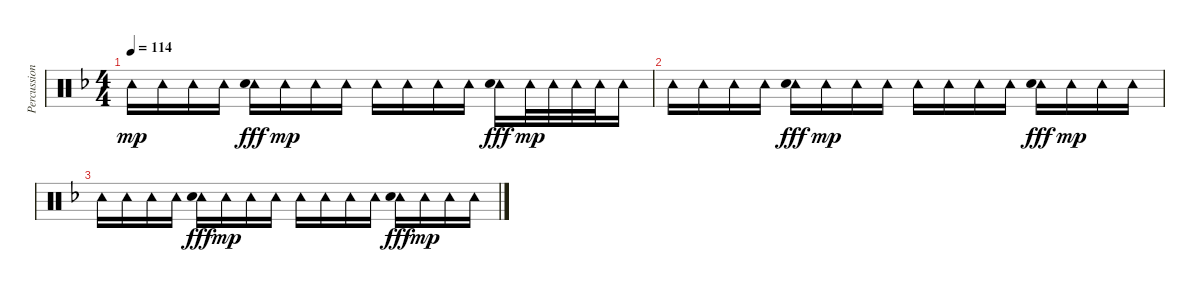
\track ("Percussion" "Percussion") {instrument percussion}
\staff {score}
\articulation defaults
\ts (4 4)
\tempo 114
\clef neutral
\ks f "Tambourine (hit)".16{dy mp} "Tambourine (hit)".16 "Tambourine (hit)".16 "Tambourine (hit)".16
("Tambourine (hit)" "Hand Clap (hit)").16{dy fff} "Tambourine (hit)".16{dy mp} "Tambourine (hit)".16 "Tambourine (hit)".16 "Tambourine (hit)".16 "Tambourine (hit)".16 "Tambourine (hit)".16 "Tambourine (hit)".16 ("Tambourine (hit)" "Hand Clap (hit)").16{dy fff} "Tambourine (hit)".32{dy mp} "Tambourine (hit)".32 "Tambourine (hit)".32 "Tambourine (hit)".32 "Tambourine (hit)".16 |
"Tambourine (hit)".16 "Tambourine (hit)".16 "Tambourine (hit)".16 "Tambourine (hit)".16 ("Tambourine (hit)" "Hand Clap (hit)").16{dy fff} "Tambourine (hit)".16{dy mp} "Tambourine (hit)".16 "Tambourine (hit)".16 "Tambourine (hit)".16 "Tambourine (hit)".16 "Tambourine (hit)".16 "Tambourine (hit)".16 ("Tambourine (hit)" "Hand Clap (hit)").16{dy fff} "Tambourine (hit)".16{dy mp} "Tambourine (hit)".16 "Tambourine (hit)".16 |
"Tambourine (hit)".16 "Tambourine (hit)".16 "Tambourine (hit)".16 "Tambourine (hit)".16 ("Tambourine (hit)" "Hand Clap (hit)").16{dy fff} "Tambourine (hit)".16{dy mp} "Tambourine (hit)".16 "Tambourine (hit)".16 "Tambourine (hit)".16 "Tambourine (hit)".16 "Tambourine (hit)".16 "Tambourine (hit)".16 ("Tambourine (hit)" "Hand Clap (hit)").16{dy fff} "Tambourine (hit)".16{dy mp} "Tambourine (hit)".16 "Tambourine (hit)".16
